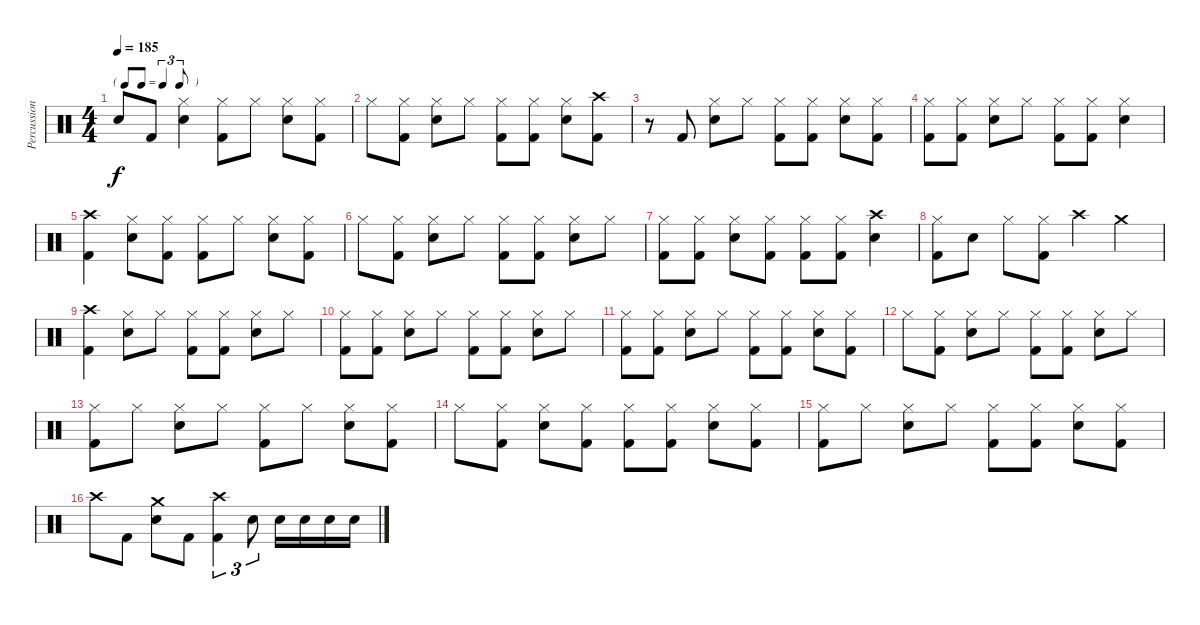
\track ("Percussion" "Percussion") {instrument percussion}
\staff {score}
\articulation defaults
\ts (4 4)
\tf triplet8th
\tempo 185
\clef neutral
\ks c "Snare (hit) 2".8{dy f} "Kick (hit) 2".8
("Snare (hit) 2" "Hi-Hat (closed)").4 ("Kick (hit) 2" "Hi-Hat (closed)").8 "Hi-Hat (closed)".8 ("Snare (hit) 2" "Hi-Hat (closed)").8 ("Kick (hit) 2" "Hi-Hat (closed)").8 |
"Hi-Hat (closed)".8 ("Kick (hit) 2" "Hi-Hat (closed)").8 ("Snare (hit) 2" "Hi-Hat (closed)").8 "Hi-Hat (closed)".8 ("Kick (hit) 2" "Hi-Hat (closed)").8 ("Kick (hit) 2" "Hi-Hat (closed)").8 ("Snare (hit) 2" "Hi-Hat (closed)").8 ("Kick (hit) 2" "Crash high (hit)").8 |
r.8 "Kick (hit) 2".8 ("Snare (hit) 2" "Hi-Hat (closed)").8 "Hi-Hat (closed)".8 ("Kick (hit) 2" "Hi-Hat (closed)").8 ("Kick (hit) 2" "Hi-Hat (closed)").8 ("Snare (hit) 2" "Hi-Hat (closed)").8 ("Kick (hit) 2" "Hi-Hat (closed)").8 |
("Kick (hit) 2" "Hi-Hat (closed)").8 ("Kick (hit) 2" "Hi-Hat (closed)").8 ("Snare (hit) 2" "Hi-Hat (closed)").8 "Hi-Hat (closed)".8 ("Kick (hit) 2" "Hi-Hat (closed)").8 ("Kick (hit) 2" "Hi-Hat (closed)").8 ("Snare (hit) 2" "Hi-Hat (closed)").4 |
("Kick (hit) 2" "Crash high (hit)").4 ("Snare (hit) 2" "Hi-Hat (closed)").8 ("Kick (hit) 2" "Hi-Hat (closed)").8 ("Kick (hit) 2" "Hi-Hat (closed)").8 "Hi-Hat (closed)".8 ("Snare (hit) 2" "Hi-Hat (closed)").8 ("Kick (hit) 2" "Hi-Hat (closed)").8 |
"Hi-Hat (closed)".8 ("Kick (hit) 2" "Hi-Hat (closed)").8 ("Snare (hit) 2" "Hi-Hat (closed)").8 "Hi-Hat (closed)".8 ("Kick (hit) 2" "Hi-Hat (closed)").8 ("Kick (hit) 2" "Hi-Hat (closed)").8 ("Snare (hit) 2" "Hi-Hat (closed)").8 "Hi-Hat (closed)".8 |
("Kick (hit) 2" "Hi-Hat (closed)").8 ("Kick (hit) 2" "Hi-Hat (closed)").8 ("Snare (hit) 2" "Hi-Hat (closed)").8 ("Kick (hit) 2" "Hi-Hat (closed)").8 ("Kick (hit) 2" "Hi-Hat (closed)").8 ("Kick (hit) 2" "Hi-Hat (closed)").8 ("Snare (hit) 2" "Crash high (hit)").4 |
("Kick (hit) 2" "Hi-Hat (closed)").8 "Snare (hit) 2".8 "Hi-Hat (closed)".8 ("Kick (hit) 2" "Hi-Hat (closed)").8 "Crash high (hit)".4 "Crash medium (hit)".4 |
("Kick (hit) 2" "Crash high (hit)").4 ("Snare (hit) 2" "Hi-Hat (closed)").8 "Hi-Hat (closed)".8 ("Kick (hit) 2" "Hi-Hat (closed)").8 ("Kick (hit) 2" "Hi-Hat (closed)").8 ("Snare (hit) 2" "Hi-Hat (closed)").8 "Hi-Hat (closed)".8 |
("Kick (hit) 2" "Hi-Hat (closed)").8 ("Kick (hit) 2" "Hi-Hat (closed)").8 ("Snare (hit) 2" "Hi-Hat (closed)").8 "Hi-Hat (closed)".8 ("Kick (hit) 2" "Hi-Hat (closed)").8 ("Kick (hit) 2" "Hi-Hat (closed)").8 ("Snare (hit) 2" "Hi-Hat (closed)").8 "Hi-Hat (closed)".8 |
("Kick (hit) 2" "Hi-Hat (closed)").8 ("Kick (hit) 2" "Hi-Hat (closed)").8 ("Snare (hit) 2" "Hi-Hat (closed)").8 "Hi-Hat (closed)".8 ("Kick (hit) 2" "Hi-Hat (closed)").8 ("Kick (hit) 2" "Hi-Hat (closed)").8 ("Snare (hit) 2" "Hi-Hat (closed)").8 ("Kick (hit) 2" "Hi-Hat (closed)").8 |
"Hi-Hat (closed)".8 ("Kick (hit) 2" "Hi-Hat (closed)").8 ("Snare (hit) 2" "Hi-Hat (closed)").8 "Hi-Hat (closed)".8 ("Kick (hit) 2" "Hi-Hat (closed)").8 ("Kick (hit) 2" "Hi-Hat (closed)").8 ("Snare (hit) 2" "Hi-Hat (closed)").8 "Hi-Hat (closed)".8 |
("Kick (hit) 2" "Hi-Hat (closed)").8 "Hi-Hat (closed)".8 ("Snare (hit) 2" "Hi-Hat (closed)").8 "Hi-Hat (closed)".8 ("Kick (hit) 2" "Hi-Hat (closed)").8 "Hi-Hat (closed)".8 ("Snare (hit) 2" "Hi-Hat (closed)").8 ("Kick (hit) 2" "Hi-Hat (closed)").8 |
"Hi-Hat (closed)".8 ("Kick (hit) 2" "Hi-Hat (closed)").8 ("Snare (hit) 2" "Hi-Hat (closed)").8 ("Kick (hit) 2" "Hi-Hat (closed)").8 ("Kick (hit) 2" "Hi-Hat (closed)").8 ("Kick (hit) 2" "Hi-Hat (closed)").8 ("Snare (hit) 2" "Hi-Hat (closed)").8 ("Kick (hit) 2" "Hi-Hat (closed)").8 |
("Kick (hit) 2" "Hi-Hat (closed)").8 "Hi-Hat (closed)".8 ("Snare (hit) 2" "Hi-Hat (closed)").8 "Hi-Hat (closed)".8 ("Kick (hit) 2" "Hi-Hat (closed)").8 ("Kick (hit) 2" "Hi-Hat (closed)").8 ("Snare (hit) 2" "Hi-Hat (closed)").8 ("Kick (hit) 2" "Hi-Hat (closed)").8 |
"Crash high (hit)".8 "Kick (hit) 2".8 ("Snare (hit) 2" "Crash medium (hit)").8 "Kick (hit) 2".8 ("Kick (hit) 2" "Crash high (hit)").4{tu (3 2)} "Snare (hit) 2".8{tu (3 2)} "Snare (hit) 2".16 "Snare (hit) 2".16 "Snare (hit) 2".16 "Snare (hit) 2".16
